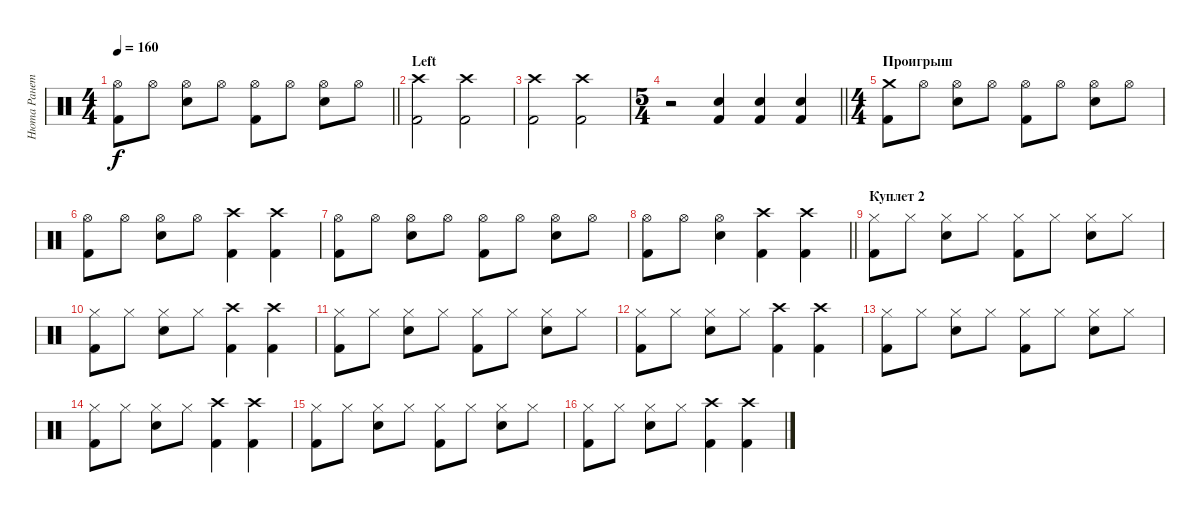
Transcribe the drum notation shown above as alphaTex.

\track ("Нюта Ранетка" "Нюта Ранет") {instrument percussion}
\staff {score}
\articulation defaults
\ts (4 4)
\tempo 160
\clef neutral
\barLineRight lightlight
\ks c
("Hi-Hat (open)" "Kick (hit) 2").8{dy f} "Hi-Hat (open)".8 ("Hi-Hat (open)" "Snare (hit) 2").8 "Hi-Hat (open)".8 ("Hi-Hat (open)" "Kick (hit) 2").8 "Hi-Hat (open)".8 ("Hi-Hat (open)" "Snare (hit) 2").8 "Hi-Hat (open)".8 |
\section ("" "Left")
("Crash high (hit)" "Kick (hit) 2").2 ("Crash high (hit)" "Kick (hit) 2").2 |
("Crash high (hit)" "Kick (hit) 2").2 ("Crash high (hit)" "Kick (hit) 2").2 |
\ts (5 4)
\barLineRight lightlight
r.2 ("Snare (hit) 2" "Kick (hit) 2").4 ("Snare (hit) 2" "Kick (hit) 2").4 ("Snare (hit) 2" "Kick (hit) 2").4 |
\ts (4 4)
\section ("" "Проигрыш")
("Crash medium (hit)" "Kick (hit) 2").8 "Hi-Hat (open)".8 ("Hi-Hat (open)" "Snare (hit) 2").8 "Hi-Hat (open)".8 ("Hi-Hat (open)" "Kick (hit) 2").8 "Hi-Hat (open)".8 ("Hi-Hat (open)" "Snare (hit) 2").8 "Hi-Hat (open)".8 |
("Hi-Hat (open)" "Kick (hit) 2").8 "Hi-Hat (open)".8 ("Hi-Hat (open)" "Snare (hit) 2").8 "Hi-Hat (open)".8 ("Crash high (hit)" "Kick (hit) 2").4 ("Crash high (hit)" "Kick (hit) 2").4 |
("Hi-Hat (open)" "Kick (hit) 2").8 "Hi-Hat (open)".8 ("Hi-Hat (open)" "Snare (hit) 2").8 "Hi-Hat (open)".8 ("Hi-Hat (open)" "Kick (hit) 2").8 "Hi-Hat (open)".8 ("Hi-Hat (open)" "Snare (hit) 2").8 "Hi-Hat (open)".8 |
\barLineRight lightlight
("Hi-Hat (open)" "Kick (hit) 2").8 "Hi-Hat (open)".8 ("Hi-Hat (open)" "Snare (hit) 2").4 ("Crash high (hit)" "Kick (hit) 2").4 ("Crash high (hit)" "Kick (hit) 2").4 |
\section ("" "Куплет 2")
("Hi-Hat (closed)" "Kick (hit) 2").8 "Hi-Hat (closed)".8 ("Hi-Hat (closed)" "Snare (hit) 2").8 "Hi-Hat (closed)".8 ("Hi-Hat (closed)" "Kick (hit) 2").8 "Hi-Hat (closed)".8 ("Hi-Hat (closed)" "Snare (hit) 2").8 "Hi-Hat (closed)".8 |
("Hi-Hat (closed)" "Kick (hit) 2").8 "Hi-Hat (closed)".8 ("Hi-Hat (closed)" "Snare (hit) 2").8 "Hi-Hat (closed)".8 ("Crash high (hit)" "Kick (hit) 2").4 ("Crash high (hit)" "Kick (hit) 2").4 |
("Hi-Hat (closed)" "Kick (hit) 2").8 "Hi-Hat (closed)".8 ("Hi-Hat (closed)" "Snare (hit) 2").8 "Hi-Hat (closed)".8 ("Hi-Hat (closed)" "Kick (hit) 2").8 "Hi-Hat (closed)".8 ("Hi-Hat (closed)" "Snare (hit) 2").8 "Hi-Hat (closed)".8 |
("Hi-Hat (closed)" "Kick (hit) 2").8 "Hi-Hat (closed)".8 ("Hi-Hat (closed)" "Snare (hit) 2").8 "Hi-Hat (closed)".8 ("Crash high (hit)" "Kick (hit) 2").4 ("Crash high (hit)" "Kick (hit) 2").4 |
("Hi-Hat (closed)" "Kick (hit) 2").8 "Hi-Hat (closed)".8 ("Hi-Hat (closed)" "Snare (hit) 2").8 "Hi-Hat (closed)".8 ("Hi-Hat (closed)" "Kick (hit) 2").8 "Hi-Hat (closed)".8 ("Hi-Hat (closed)" "Snare (hit) 2").8 "Hi-Hat (closed)".8 |
("Hi-Hat (closed)" "Kick (hit) 2").8 "Hi-Hat (closed)".8 ("Hi-Hat (closed)" "Snare (hit) 2").8 "Hi-Hat (closed)".8 ("Crash high (hit)" "Kick (hit) 2").4 ("Crash high (hit)" "Kick (hit) 2").4 |
("Hi-Hat (closed)" "Kick (hit) 2").8 "Hi-Hat (closed)".8 ("Hi-Hat (closed)" "Snare (hit) 2").8 "Hi-Hat (closed)".8 ("Hi-Hat (closed)" "Kick (hit) 2").8 "Hi-Hat (closed)".8 ("Hi-Hat (closed)" "Snare (hit) 2").8 "Hi-Hat (closed)".8 |
("Hi-Hat (closed)" "Kick (hit) 2").8 "Hi-Hat (closed)".8 ("Hi-Hat (closed)" "Snare (hit) 2").8 "Hi-Hat (closed)".8 ("Crash high (hit)" "Kick (hit) 2").4 ("Crash high (hit)" "Kick (hit) 2").4
